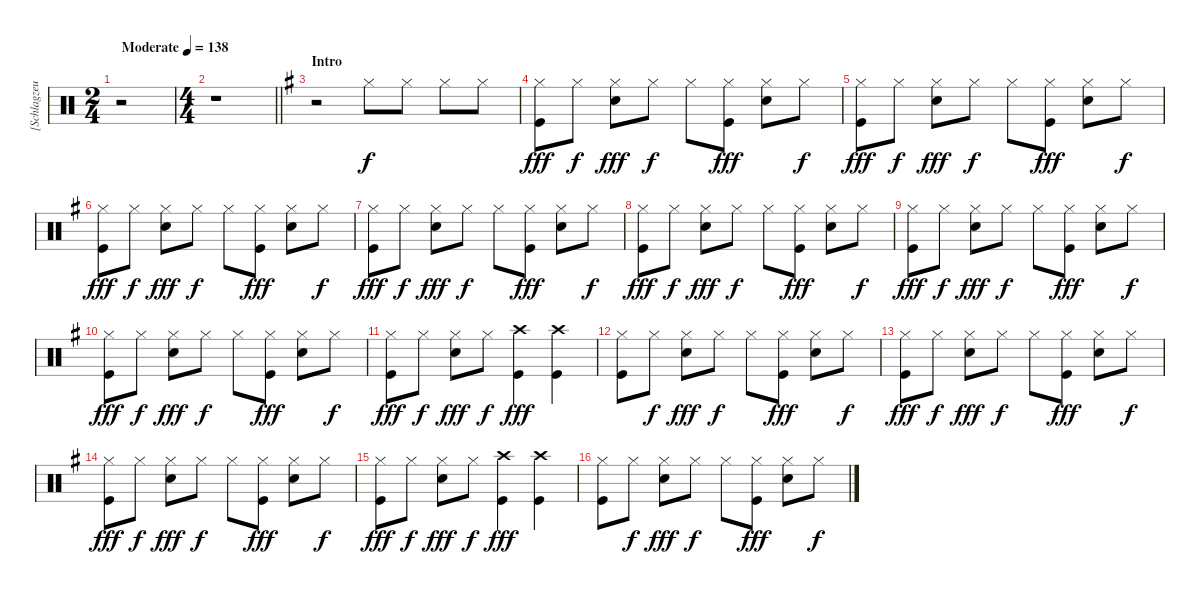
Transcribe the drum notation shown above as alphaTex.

\track ("[Schlagzeug]" "[Schlagzeu") {instrument percussion}
\staff {score}
\articulation defaults
\ts (2 4)
\tempo (138 "Moderate")
\clef neutral
\ks c
r.2{dy f} |
\ts (4 4)
\barLineRight lightlight
r.1 |
\section ("" "Intro")
\ks eminor
r.2 "Hi-Hat (closed)".8 "Hi-Hat (closed)".8 "Hi-Hat (closed)".8 "Hi-Hat (closed)".8 |
("Hi-Hat (closed)" "Kick (hit)").8{dy fff} "Hi-Hat (closed)".8{dy f} ("Hi-Hat (closed)" "Electric Snare (hit)").8{dy fff} "Hi-Hat (closed)".8{dy f} "Hi-Hat (closed)".8 ("Hi-Hat (closed)" "Kick (hit)").8{dy fff} ("Hi-Hat (closed)" "Electric Snare (hit)").8 "Hi-Hat (closed)".8{dy f} |
("Hi-Hat (closed)" "Kick (hit)").8{dy fff} "Hi-Hat (closed)".8{dy f} ("Hi-Hat (closed)" "Electric Snare (hit)").8{dy fff} "Hi-Hat (closed)".8{dy f} "Hi-Hat (closed)".8 ("Hi-Hat (closed)" "Kick (hit)").8{dy fff} ("Hi-Hat (closed)" "Electric Snare (hit)").8 "Hi-Hat (closed)".8{dy f} |
("Hi-Hat (closed)" "Kick (hit)").8{dy fff} "Hi-Hat (closed)".8{dy f} ("Hi-Hat (closed)" "Electric Snare (hit)").8{dy fff} "Hi-Hat (closed)".8{dy f} "Hi-Hat (closed)".8 ("Hi-Hat (closed)" "Kick (hit)").8{dy fff} ("Hi-Hat (closed)" "Electric Snare (hit)").8 "Hi-Hat (closed)".8{dy f} |
("Hi-Hat (closed)" "Kick (hit)").8{dy fff} "Hi-Hat (closed)".8{dy f} ("Hi-Hat (closed)" "Electric Snare (hit)").8{dy fff} "Hi-Hat (closed)".8{dy f} "Hi-Hat (closed)".8 ("Hi-Hat (closed)" "Kick (hit)").8{dy fff} ("Hi-Hat (closed)" "Electric Snare (hit)").8 "Hi-Hat (closed)".8{dy f} |
("Hi-Hat (closed)" "Kick (hit)").8{dy fff} "Hi-Hat (closed)".8{dy f} ("Hi-Hat (closed)" "Electric Snare (hit)").8{dy fff} "Hi-Hat (closed)".8{dy f} "Hi-Hat (closed)".8 ("Hi-Hat (closed)" "Kick (hit)").8{dy fff} ("Hi-Hat (closed)" "Electric Snare (hit)").8 "Hi-Hat (closed)".8{dy f} |
("Hi-Hat (closed)" "Kick (hit)").8{dy fff} "Hi-Hat (closed)".8{dy f} ("Hi-Hat (closed)" "Electric Snare (hit)").8{dy fff} "Hi-Hat (closed)".8{dy f} "Hi-Hat (closed)".8 ("Hi-Hat (closed)" "Kick (hit)").8{dy fff} ("Hi-Hat (closed)" "Electric Snare (hit)").8 "Hi-Hat (closed)".8{dy f} |
("Hi-Hat (closed)" "Kick (hit)").8{dy fff} "Hi-Hat (closed)".8{dy f} ("Hi-Hat (closed)" "Electric Snare (hit)").8{dy fff} "Hi-Hat (closed)".8{dy f} "Hi-Hat (closed)".8 ("Hi-Hat (closed)" "Kick (hit)").8{dy fff} ("Hi-Hat (closed)" "Electric Snare (hit)").8 "Hi-Hat (closed)".8{dy f} |
("Hi-Hat (closed)" "Kick (hit)").8{dy fff} "Hi-Hat (closed)".8{dy f} ("Hi-Hat (closed)" "Electric Snare (hit)").8{dy fff} "Hi-Hat (closed)".8{dy f} ("Crash high (hit)" "Kick (hit)").4{dy fff} ("Crash high (hit)" "Kick (hit)").4 |
("Hi-Hat (closed)" "Kick (hit)").8 "Hi-Hat (closed)".8{dy f} ("Hi-Hat (closed)" "Electric Snare (hit)").8{dy fff} "Hi-Hat (closed)".8{dy f} "Hi-Hat (closed)".8 ("Hi-Hat (closed)" "Kick (hit)").8{dy fff} ("Hi-Hat (closed)" "Electric Snare (hit)").8 "Hi-Hat (closed)".8{dy f} |
("Hi-Hat (closed)" "Kick (hit)").8{dy fff} "Hi-Hat (closed)".8{dy f} ("Hi-Hat (closed)" "Electric Snare (hit)").8{dy fff} "Hi-Hat (closed)".8{dy f} "Hi-Hat (closed)".8 ("Hi-Hat (closed)" "Kick (hit)").8{dy fff} ("Hi-Hat (closed)" "Electric Snare (hit)").8 "Hi-Hat (closed)".8{dy f} |
("Hi-Hat (closed)" "Kick (hit)").8{dy fff} "Hi-Hat (closed)".8{dy f} ("Hi-Hat (closed)" "Electric Snare (hit)").8{dy fff} "Hi-Hat (closed)".8{dy f} "Hi-Hat (closed)".8 ("Hi-Hat (closed)" "Kick (hit)").8{dy fff} ("Hi-Hat (closed)" "Electric Snare (hit)").8 "Hi-Hat (closed)".8{dy f} |
("Hi-Hat (closed)" "Kick (hit)").8{dy fff} "Hi-Hat (closed)".8{dy f} ("Hi-Hat (closed)" "Electric Snare (hit)").8{dy fff} "Hi-Hat (closed)".8{dy f} ("Crash high (hit)" "Kick (hit)").4{dy fff} ("Crash high (hit)" "Kick (hit)").4 |
("Hi-Hat (closed)" "Kick (hit)").8 "Hi-Hat (closed)".8{dy f} ("Hi-Hat (closed)" "Electric Snare (hit)").8{dy fff} "Hi-Hat (closed)".8{dy f} "Hi-Hat (closed)".8 ("Hi-Hat (closed)" "Kick (hit)").8{dy fff} ("Hi-Hat (closed)" "Electric Snare (hit)").8 "Hi-Hat (closed)".8{dy f}
